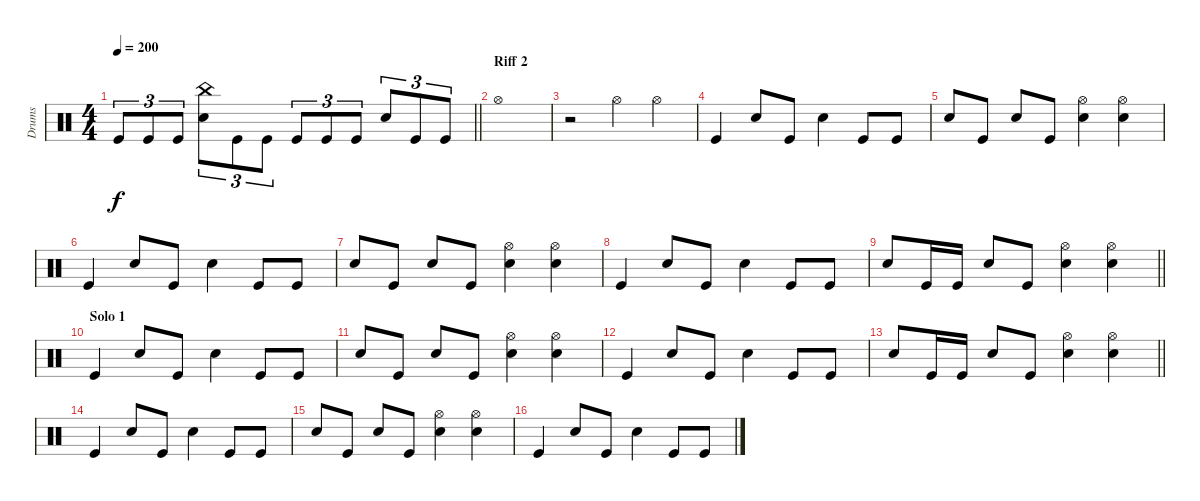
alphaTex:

\track ("Drums" "Drums") {instrument percussion}
\staff {score}
\articulation defaults
\ts (4 4)
\tempo 200
\clef neutral
\barLineRight lightlight
\ks c "Kick (hit)".8{tu (3 2) dy f} "Kick (hit)".8{tu (3 2)} "Kick (hit)".8{tu (3 2)}
("China (hit)" "Snare (hit) 2").8{tu (3 2)} "Kick (hit)".8{tu (3 2)} "Kick (hit)".8{tu (3 2)} "Kick (hit)".8{tu (3 2)} "Kick (hit)".8{tu (3 2)} "Kick (hit)".8{tu (3 2)} "Snare (hit) 2".8{tu (3 2)} "Kick (hit)".8{tu (3 2)} "Kick (hit)".8{tu (3 2)} |
\section ("" "Riff 2")
"Hi-Hat (open)".1 |
r.2 "Hi-Hat (open)".4 "Hi-Hat (open)".4 |
"Kick (hit)".4 "Snare (hit) 2".8 "Kick (hit)".8 "Snare (hit) 2".4 "Kick (hit)".8 "Kick (hit)".8 |
"Snare (hit) 2".8 "Kick (hit)".8 "Snare (hit) 2".8 "Kick (hit)".8 ("Hi-Hat (open)" "Snare (hit) 2").4 ("Hi-Hat (open)" "Snare (hit) 2").4 |
"Kick (hit)".4 "Snare (hit) 2".8 "Kick (hit)".8 "Snare (hit) 2".4 "Kick (hit)".8 "Kick (hit)".8 |
"Snare (hit) 2".8 "Kick (hit)".8 "Snare (hit) 2".8 "Kick (hit)".8 ("Hi-Hat (open)" "Snare (hit) 2").4 ("Hi-Hat (open)" "Snare (hit) 2").4 |
"Kick (hit)".4 "Snare (hit) 2".8 "Kick (hit)".8 "Snare (hit) 2".4 "Kick (hit)".8 "Kick (hit)".8 |
\barLineRight lightlight "Snare (hit) 2".8 "Kick (hit)".16 "Kick (hit)".16 "Snare (hit) 2".8 "Kick (hit)".8
("Hi-Hat (open)" "Snare (hit) 2").4 ("Hi-Hat (open)" "Snare (hit) 2").4 |
\section ("" "Solo 1")
"Kick (hit)".4 "Snare (hit) 2".8 "Kick (hit)".8 "Snare (hit) 2".4 "Kick (hit)".8 "Kick (hit)".8 |
"Snare (hit) 2".8 "Kick (hit)".8 "Snare (hit) 2".8 "Kick (hit)".8 ("Hi-Hat (open)" "Snare (hit) 2").4 ("Hi-Hat (open)" "Snare (hit) 2").4 |
"Kick (hit)".4 "Snare (hit) 2".8 "Kick (hit)".8 "Snare (hit) 2".4 "Kick (hit)".8 "Kick (hit)".8 |
\barLineRight lightlight "Snare (hit) 2".8 "Kick (hit)".16 "Kick (hit)".16 "Snare (hit) 2".8 "Kick (hit)".8
("Hi-Hat (open)" "Snare (hit) 2").4 ("Hi-Hat (open)" "Snare (hit) 2").4 |
"Kick (hit)".4 "Snare (hit) 2".8 "Kick (hit)".8 "Snare (hit) 2".4 "Kick (hit)".8 "Kick (hit)".8 |
"Snare (hit) 2".8 "Kick (hit)".8 "Snare (hit) 2".8 "Kick (hit)".8 ("Hi-Hat (open)" "Snare (hit) 2").4 ("Hi-Hat (open)" "Snare (hit) 2").4 |
"Kick (hit)".4 "Snare (hit) 2".8 "Kick (hit)".8 "Snare (hit) 2".4 "Kick (hit)".8 "Kick (hit)".8
